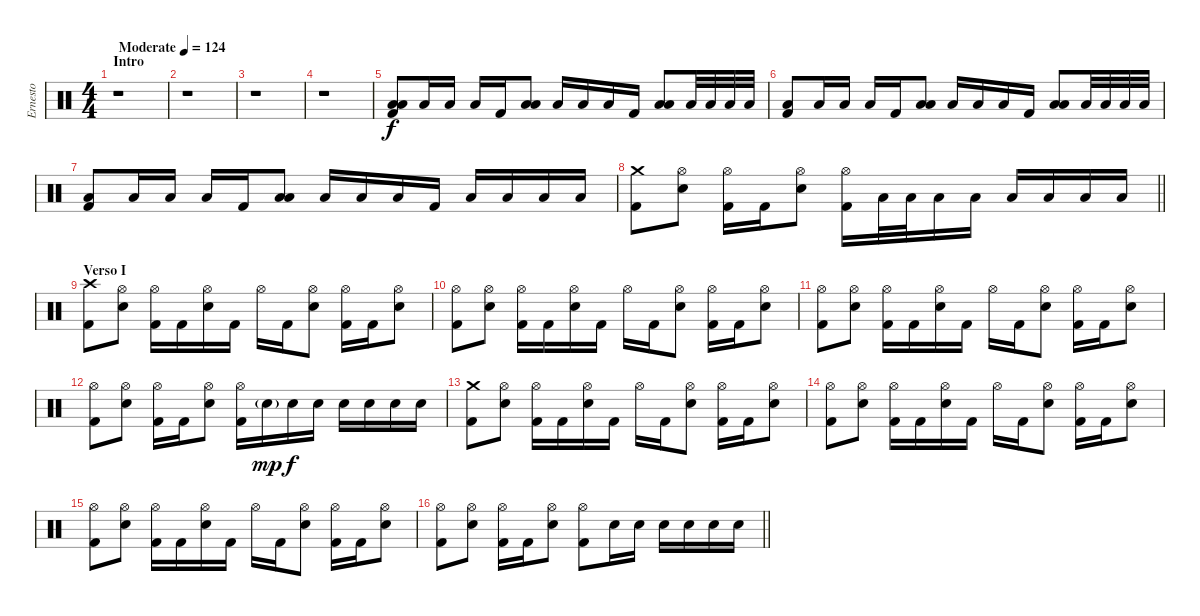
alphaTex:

\track ("Ernesto" "Ernesto") {instrument percussion}
\staff
\articulation defaults
\ts (4 4)
\section ("" "Intro")
\tempo (124 "Moderate")
\clef neutral
\ks c
r.1{dy f} |
r.1 |
r.1 |
r.1 |
("Low Tom (hit)" "Low Floor Tom (hit)" "Kick (hit) 2").8 "Low Floor Tom (hit)".16 "Low Tom (hit)".16 "Low Floor Tom (hit)".16 "Kick (hit) 2".16 ("Low Tom (hit)" "Low Floor Tom (hit)").8 "Low Floor Tom (hit)".16 "Low Tom (hit)".16 "Low Floor Tom (hit)".16 "Kick (hit) 2".16 ("Low Tom (hit)" "Low Floor Tom (hit)").8 "Low Tom (hit)".32 "Low Tom (hit)".32 "Low Tom (hit)".32 "Low Tom (hit)".32 |
("Low Floor Tom (hit)" "Kick (hit) 2").8 "Low Floor Tom (hit)".16 "Low Tom (hit)".16 "Low Floor Tom (hit)".16 "Kick (hit) 2".16 ("Low Tom (hit)" "Low Floor Tom (hit)").8 "Low Floor Tom (hit)".16 "Low Tom (hit)".16 "Low Floor Tom (hit)".16 "Kick (hit) 2".16 ("Low Tom (hit)" "Low Floor Tom (hit)").8 "Low Floor Tom (hit)".32 "Low Floor Tom (hit)".32 "Low Floor Tom (hit)".32 "Low Floor Tom (hit)".32 |
("Low Floor Tom (hit)" "Kick (hit) 2").8 "Low Floor Tom (hit)".16 "Low Tom (hit)".16 "Low Floor Tom (hit)".16 "Kick (hit) 2".16 ("Low Tom (hit)" "Low Floor Tom (hit)").8 "Low Floor Tom (hit)".16 "Low Tom (hit)".16 "Low Floor Tom (hit)".16 "Kick (hit) 2".16 "Low Tom (hit)".16 "Low Tom (hit)".16 "Low Floor Tom (hit)".16 "Low Floor Tom (hit)".16 |
\barLineRight lightlight
("Crash medium (hit)" "Kick (hit) 2").8 ("Hi-Hat (open)" "Electric Snare (hit)").8 ("Hi-Hat (open)" "Kick (hit) 2").16 "Kick (hit) 2".16 ("Hi-Hat (open)" "Electric Snare (hit)").8 ("Hi-Hat (open)" "Kick (hit) 2").16 "Low Tom (hit)".32 "Low Tom (hit)".32 "Low Tom (hit)".16 "Low Tom (hit)".16 "Low Tom (hit)".16 "Low Tom (hit)".16 "Low Floor Tom (hit)".16 "Low Floor Tom (hit)".16 |
\section ("" "Verso I")
("Crash high (hit)" "Kick (hit) 2").8 ("Hi-Hat (open)" "Electric Snare (hit)").8 ("Hi-Hat (open)" "Kick (hit) 2").16 "Kick (hit) 2".16 ("Hi-Hat (open)" "Electric Snare (hit)").16 "Kick (hit) 2".16 "Hi-Hat (open)".16 "Kick (hit) 2".16 ("Hi-Hat (open)" "Electric Snare (hit)").8 ("Hi-Hat (open)" "Kick (hit) 2").16 "Kick (hit) 2".16 ("Hi-Hat (open)" "Electric Snare (hit)").8 |
("Hi-Hat (open)" "Kick (hit) 2").8 ("Hi-Hat (open)" "Electric Snare (hit)").8 ("Hi-Hat (open)" "Kick (hit) 2").16 "Kick (hit) 2".16 ("Hi-Hat (open)" "Electric Snare (hit)").16 "Kick (hit) 2".16 "Hi-Hat (open)".16 "Kick (hit) 2".16 ("Hi-Hat (open)" "Electric Snare (hit)").8 ("Hi-Hat (open)" "Kick (hit) 2").16 "Kick (hit) 2".16 ("Hi-Hat (open)" "Electric Snare (hit)").8 |
("Hi-Hat (open)" "Kick (hit) 2").8 ("Hi-Hat (open)" "Electric Snare (hit)").8 ("Hi-Hat (open)" "Kick (hit) 2").16 "Kick (hit) 2".16 ("Hi-Hat (open)" "Electric Snare (hit)").16 "Kick (hit) 2".16 "Hi-Hat (open)".16 "Kick (hit) 2".16 ("Hi-Hat (open)" "Electric Snare (hit)").8 ("Hi-Hat (open)" "Kick (hit) 2").16 "Kick (hit) 2".16 ("Hi-Hat (open)" "Electric Snare (hit)").8 |
("Hi-Hat (open)" "Kick (hit) 2").8 ("Hi-Hat (open)" "Electric Snare (hit)").8 ("Hi-Hat (open)" "Kick (hit) 2").16 "Kick (hit) 2".16 ("Hi-Hat (open)" "Electric Snare (hit)").8 ("Hi-Hat (open)" "Kick (hit) 2").16 "Electric Snare (hit)"{g}.16{dy mp} "Electric Snare (hit)".16{dy f} "Electric Snare (hit)".16 "Electric Snare (hit)".16 "Electric Snare (hit)".16 "Electric Snare (hit)".16 "Electric Snare (hit)".16 |
("Crash medium (hit)" "Kick (hit) 2").8 ("Hi-Hat (open)" "Electric Snare (hit)").8 ("Hi-Hat (open)" "Kick (hit) 2").16 "Kick (hit) 2".16 ("Hi-Hat (open)" "Electric Snare (hit)").16 "Kick (hit) 2".16 "Hi-Hat (open)".16 "Kick (hit) 2".16 ("Hi-Hat (open)" "Electric Snare (hit)").8 ("Hi-Hat (open)" "Kick (hit) 2").16 "Kick (hit) 2".16 ("Hi-Hat (open)" "Electric Snare (hit)").8 |
("Hi-Hat (open)" "Kick (hit) 2").8 ("Hi-Hat (open)" "Electric Snare (hit)").8 ("Hi-Hat (open)" "Kick (hit) 2").16 "Kick (hit) 2".16 ("Hi-Hat (open)" "Electric Snare (hit)").16 "Kick (hit) 2".16 "Hi-Hat (open)".16 "Kick (hit) 2".16 ("Hi-Hat (open)" "Electric Snare (hit)").8 ("Hi-Hat (open)" "Kick (hit) 2").16 "Kick (hit) 2".16 ("Hi-Hat (open)" "Electric Snare (hit)").8 |
("Hi-Hat (open)" "Kick (hit) 2").8 ("Hi-Hat (open)" "Electric Snare (hit)").8 ("Hi-Hat (open)" "Kick (hit) 2").16 "Kick (hit) 2".16 ("Hi-Hat (open)" "Electric Snare (hit)").16 "Kick (hit) 2".16 "Hi-Hat (open)".16 "Kick (hit) 2".16 ("Hi-Hat (open)" "Electric Snare (hit)").8 ("Hi-Hat (open)" "Kick (hit) 2").16 "Kick (hit) 2".16 ("Hi-Hat (open)" "Electric Snare (hit)").8 |
\barLineRight lightlight
("Hi-Hat (open)" "Kick (hit) 2").8 ("Hi-Hat (open)" "Electric Snare (hit)").8 ("Hi-Hat (open)" "Kick (hit) 2").16 "Kick (hit) 2".16 ("Hi-Hat (open)" "Electric Snare (hit)").8 ("Hi-Hat (open)" "Kick (hit) 2").8 "Electric Snare (hit)".16 "Electric Snare (hit)".16 "Electric Snare (hit)".16 "Electric Snare (hit)".16 "Electric Snare (hit)".16 "Electric Snare (hit)".16
